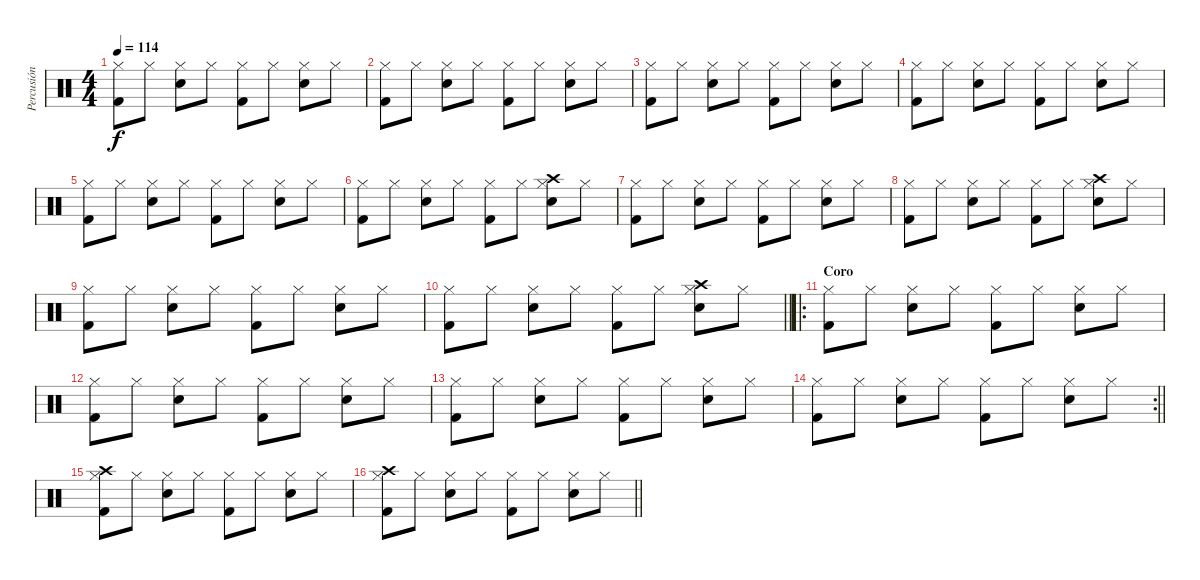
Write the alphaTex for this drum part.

\track ("Percusión" "Percusión") {instrument percussion}
\staff {score}
\articulation defaults
\ts (4 4)
\tempo 114
\clef neutral
\ks c
("Hi-Hat (closed)" "Kick (hit) 2").8{dy f} "Hi-Hat (closed)".8 ("Hi-Hat (closed)" "Electric Snare (hit)").8 "Hi-Hat (closed)".8 ("Hi-Hat (closed)" "Kick (hit) 2").8 "Hi-Hat (closed)".8 ("Hi-Hat (closed)" "Electric Snare (hit)").8 "Hi-Hat (closed)".8 |
("Hi-Hat (closed)" "Kick (hit) 2").8 "Hi-Hat (closed)".8 ("Hi-Hat (closed)" "Electric Snare (hit)").8 "Hi-Hat (closed)".8 ("Hi-Hat (closed)" "Kick (hit) 2").8 "Hi-Hat (closed)".8 ("Hi-Hat (closed)" "Electric Snare (hit)").8 "Hi-Hat (closed)".8 |
("Hi-Hat (closed)" "Kick (hit) 2").8 "Hi-Hat (closed)".8 ("Hi-Hat (closed)" "Electric Snare (hit)").8 "Hi-Hat (closed)".8 ("Hi-Hat (closed)" "Kick (hit) 2").8 "Hi-Hat (closed)".8 ("Hi-Hat (closed)" "Electric Snare (hit)").8 "Hi-Hat (closed)".8 |
("Hi-Hat (closed)" "Kick (hit) 2").8 "Hi-Hat (closed)".8 ("Hi-Hat (closed)" "Electric Snare (hit)").8 "Hi-Hat (closed)".8 ("Hi-Hat (closed)" "Kick (hit) 2").8 "Hi-Hat (closed)".8 ("Hi-Hat (closed)" "Electric Snare (hit)").8 "Hi-Hat (closed)".8 |
("Hi-Hat (closed)" "Kick (hit) 2").8 "Hi-Hat (closed)".8 ("Hi-Hat (closed)" "Electric Snare (hit)").8 "Hi-Hat (closed)".8 ("Hi-Hat (closed)" "Kick (hit) 2").8 "Hi-Hat (closed)".8 ("Hi-Hat (closed)" "Electric Snare (hit)").8 "Hi-Hat (closed)".8 |
("Hi-Hat (closed)" "Kick (hit) 2").8 "Hi-Hat (closed)".8 ("Hi-Hat (closed)" "Electric Snare (hit)").8 "Hi-Hat (closed)".8 ("Hi-Hat (closed)" "Kick (hit) 2").8 "Hi-Hat (closed)".8 ("Crash high (hit)" "Hi-Hat (closed)" "Electric Snare (hit)").8 "Hi-Hat (closed)".8 |
("Hi-Hat (closed)" "Kick (hit) 2").8 "Hi-Hat (closed)".8 ("Hi-Hat (closed)" "Electric Snare (hit)").8 "Hi-Hat (closed)".8 ("Hi-Hat (closed)" "Kick (hit) 2").8 "Hi-Hat (closed)".8 ("Hi-Hat (closed)" "Electric Snare (hit)").8 "Hi-Hat (closed)".8 |
("Hi-Hat (closed)" "Kick (hit) 2").8 "Hi-Hat (closed)".8 ("Hi-Hat (closed)" "Electric Snare (hit)").8 "Hi-Hat (closed)".8 ("Hi-Hat (closed)" "Kick (hit) 2").8 "Hi-Hat (closed)".8 ("Crash high (hit)" "Hi-Hat (closed)" "Electric Snare (hit)").8 "Hi-Hat (closed)".8 |
("Hi-Hat (closed)" "Kick (hit) 2").8 "Hi-Hat (closed)".8 ("Hi-Hat (closed)" "Electric Snare (hit)").8 "Hi-Hat (closed)".8 ("Hi-Hat (closed)" "Kick (hit) 2").8 "Hi-Hat (closed)".8 ("Hi-Hat (closed)" "Electric Snare (hit)").8 "Hi-Hat (closed)".8 |
\barLineRight lightlight
("Hi-Hat (closed)" "Kick (hit) 2").8 "Hi-Hat (closed)".8 ("Hi-Hat (closed)" "Electric Snare (hit)").8 "Hi-Hat (closed)".8 ("Hi-Hat (closed)" "Kick (hit) 2").8 "Hi-Hat (closed)".8 ("Crash high (hit)" "Hi-Hat (closed)" "Electric Snare (hit)").8 "Hi-Hat (closed)".8 |
\ro
\section ("" "Coro")
("Hi-Hat (closed)" "Kick (hit) 2").8 "Hi-Hat (closed)".8 ("Hi-Hat (closed)" "Electric Snare (hit)").8 "Hi-Hat (closed)".8 ("Hi-Hat (closed)" "Kick (hit) 2").8 "Hi-Hat (closed)".8 ("Hi-Hat (closed)" "Electric Snare (hit)").8 "Hi-Hat (closed)".8 |
("Hi-Hat (closed)" "Kick (hit) 2").8 "Hi-Hat (closed)".8 ("Hi-Hat (closed)" "Electric Snare (hit)").8 "Hi-Hat (closed)".8 ("Hi-Hat (closed)" "Kick (hit) 2").8 "Hi-Hat (closed)".8 ("Hi-Hat (closed)" "Electric Snare (hit)").8 "Hi-Hat (closed)".8 |
("Hi-Hat (closed)" "Kick (hit) 2").8 "Hi-Hat (closed)".8 ("Hi-Hat (closed)" "Electric Snare (hit)").8 "Hi-Hat (closed)".8 ("Hi-Hat (closed)" "Kick (hit) 2").8 "Hi-Hat (closed)".8 ("Hi-Hat (closed)" "Electric Snare (hit)").8 "Hi-Hat (closed)".8 |
\rc 2
\barLineRight lightlight
("Hi-Hat (closed)" "Kick (hit) 2").8 "Hi-Hat (closed)".8 ("Hi-Hat (closed)" "Electric Snare (hit)").8 "Hi-Hat (closed)".8 ("Hi-Hat (closed)" "Kick (hit) 2").8 "Hi-Hat (closed)".8 ("Hi-Hat (closed)" "Electric Snare (hit)").8 "Hi-Hat (closed)".8 |
("Crash high (hit)" "Hi-Hat (closed)" "Kick (hit) 2").8 "Hi-Hat (closed)".8 ("Hi-Hat (closed)" "Electric Snare (hit)").8 "Hi-Hat (closed)".8 ("Hi-Hat (closed)" "Kick (hit) 2").8 "Hi-Hat (closed)".8 ("Hi-Hat (closed)" "Electric Snare (hit)").8 "Hi-Hat (closed)".8 |
\barLineRight lightlight
("Crash high (hit)" "Hi-Hat (closed)" "Kick (hit) 2").8 "Hi-Hat (closed)".8 ("Hi-Hat (closed)" "Electric Snare (hit)").8 "Hi-Hat (closed)".8 ("Hi-Hat (closed)" "Kick (hit) 2").8 "Hi-Hat (closed)".8 ("Hi-Hat (closed)" "Electric Snare (hit)").8 "Hi-Hat (closed)".8
